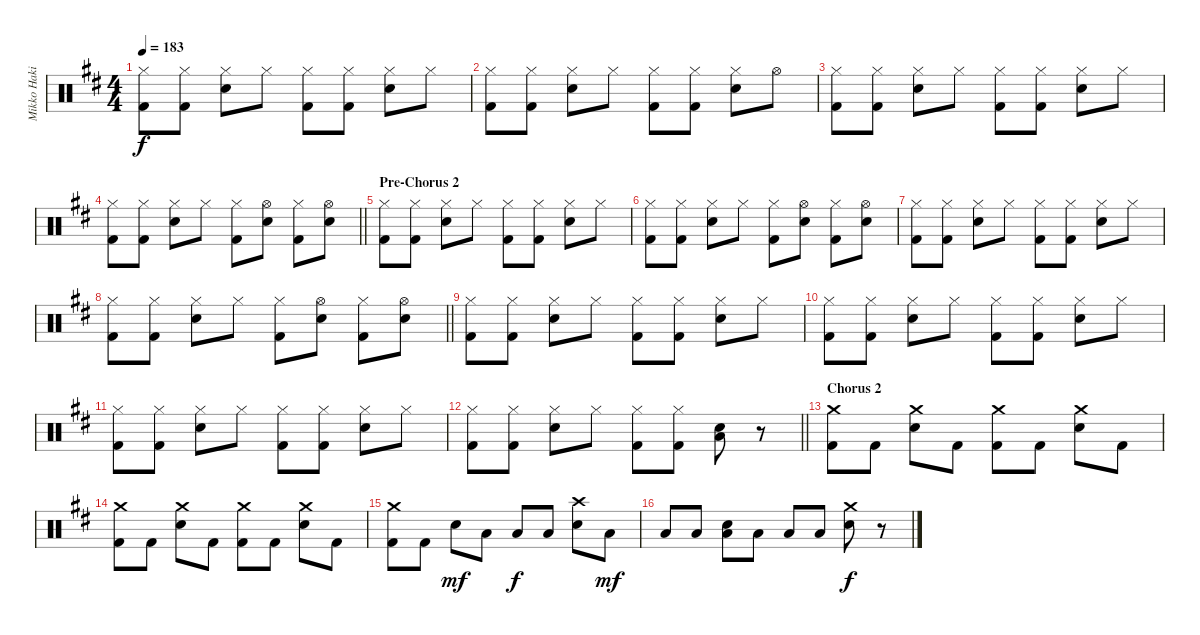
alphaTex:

\track ("Mikko Hakila - drums" "Mikko Haki") {instrument percussion}
\staff {score}
\articulation defaults
\ts (4 4)
\tempo 183
\clef neutral
\ks bminor
("Hi-Hat (closed)" "Kick (hit) 2").8{dy f} ("Hi-Hat (closed)" "Kick (hit) 2").8 ("Hi-Hat (closed)" "Electric Snare (hit)").8 "Hi-Hat (closed)".8 ("Hi-Hat (closed)" "Kick (hit) 2").8 ("Hi-Hat (closed)" "Kick (hit) 2").8 ("Hi-Hat (closed)" "Electric Snare (hit)").8 "Hi-Hat (closed)".8 |
("Hi-Hat (closed)" "Kick (hit) 2").8 ("Hi-Hat (closed)" "Kick (hit) 2").8 ("Hi-Hat (closed)" "Electric Snare (hit)").8 "Hi-Hat (closed)".8 ("Hi-Hat (closed)" "Kick (hit) 2").8 ("Hi-Hat (closed)" "Kick (hit) 2").8 ("Hi-Hat (closed)" "Electric Snare (hit)").8 "Hi-Hat (open)".8 |
("Hi-Hat (closed)" "Kick (hit) 2").8 ("Hi-Hat (closed)" "Kick (hit) 2").8 ("Hi-Hat (closed)" "Electric Snare (hit)").8 "Hi-Hat (closed)".8 ("Hi-Hat (closed)" "Kick (hit) 2").8 ("Hi-Hat (closed)" "Kick (hit) 2").8 ("Hi-Hat (closed)" "Electric Snare (hit)").8 "Hi-Hat (closed)".8 |
\barLineRight lightlight
("Hi-Hat (closed)" "Kick (hit) 2").8 ("Hi-Hat (closed)" "Kick (hit) 2").8 ("Hi-Hat (closed)" "Electric Snare (hit)").8 "Hi-Hat (closed)".8 ("Hi-Hat (closed)" "Kick (hit) 2").8 ("Hi-Hat (open)" "Electric Snare (hit)").8 ("Hi-Hat (closed)" "Kick (hit) 2").8 ("Hi-Hat (open)" "Electric Snare (hit)").8 |
\section ("" "Pre-Chorus 2")
("Hi-Hat (closed)" "Kick (hit) 2").8 ("Hi-Hat (closed)" "Kick (hit) 2").8 ("Hi-Hat (closed)" "Electric Snare (hit)").8 "Hi-Hat (closed)".8 ("Hi-Hat (closed)" "Kick (hit) 2").8 ("Hi-Hat (closed)" "Kick (hit) 2").8 ("Hi-Hat (closed)" "Electric Snare (hit)").8 "Hi-Hat (closed)".8 |
("Hi-Hat (closed)" "Kick (hit) 2").8 ("Hi-Hat (closed)" "Kick (hit) 2").8 ("Hi-Hat (closed)" "Electric Snare (hit)").8 "Hi-Hat (closed)".8 ("Hi-Hat (closed)" "Kick (hit) 2").8 ("Hi-Hat (open)" "Electric Snare (hit)").8 ("Hi-Hat (closed)" "Kick (hit) 2").8 ("Hi-Hat (open)" "Electric Snare (hit)").8 |
("Hi-Hat (closed)" "Kick (hit) 2").8 ("Hi-Hat (closed)" "Kick (hit) 2").8 ("Hi-Hat (closed)" "Electric Snare (hit)").8 "Hi-Hat (closed)".8 ("Hi-Hat (closed)" "Kick (hit) 2").8 ("Hi-Hat (closed)" "Kick (hit) 2").8 ("Hi-Hat (closed)" "Electric Snare (hit)").8 "Hi-Hat (closed)".8 |
\barLineRight lightlight
("Hi-Hat (closed)" "Kick (hit) 2").8 ("Hi-Hat (closed)" "Kick (hit) 2").8 ("Hi-Hat (closed)" "Electric Snare (hit)").8 "Hi-Hat (closed)".8 ("Hi-Hat (closed)" "Kick (hit) 2").8 ("Hi-Hat (open)" "Electric Snare (hit)").8 ("Hi-Hat (closed)" "Kick (hit) 2").8 ("Hi-Hat (open)" "Electric Snare (hit)").8 |
("Hi-Hat (closed)" "Kick (hit) 2").8 ("Hi-Hat (closed)" "Kick (hit) 2").8 ("Hi-Hat (closed)" "Electric Snare (hit)").8 "Hi-Hat (closed)".8 ("Hi-Hat (closed)" "Kick (hit) 2").8 ("Hi-Hat (closed)" "Kick (hit) 2").8 ("Hi-Hat (closed)" "Electric Snare (hit)").8 "Hi-Hat (closed)".8 |
("Hi-Hat (closed)" "Kick (hit) 2").8 ("Hi-Hat (closed)" "Kick (hit) 2").8 ("Hi-Hat (closed)" "Electric Snare (hit)").8 "Hi-Hat (closed)".8 ("Hi-Hat (closed)" "Kick (hit) 2").8 ("Hi-Hat (closed)" "Kick (hit) 2").8 ("Hi-Hat (closed)" "Electric Snare (hit)").8 "Hi-Hat (closed)".8 |
("Hi-Hat (closed)" "Kick (hit) 2").8 ("Hi-Hat (closed)" "Kick (hit) 2").8 ("Hi-Hat (closed)" "Electric Snare (hit)").8 "Hi-Hat (closed)".8 ("Hi-Hat (closed)" "Kick (hit) 2").8 ("Hi-Hat (closed)" "Kick (hit) 2").8 ("Hi-Hat (closed)" "Electric Snare (hit)").8 "Hi-Hat (closed)".8 |
\barLineRight lightlight
("Hi-Hat (closed)" "Kick (hit) 2").8 ("Hi-Hat (closed)" "Kick (hit) 2").8 ("Hi-Hat (closed)" "Electric Snare (hit)").8 "Hi-Hat (closed)".8 ("Hi-Hat (closed)" "Kick (hit) 2").8 ("Hi-Hat (closed)" "Kick (hit) 2").8 ("Electric Snare (hit)" "Low Tom (hit)").8 r.8 |
\section ("" "Chorus 2")
("Crash medium (hit)" "Kick (hit) 2").8 "Kick (hit) 2".8 ("Crash medium (hit)" "Electric Snare (hit)").8 "Kick (hit) 2".8 ("Crash medium (hit)" "Kick (hit) 2").8 "Kick (hit) 2".8 ("Crash medium (hit)" "Electric Snare (hit)").8 "Kick (hit) 2".8 |
("Crash medium (hit)" "Kick (hit) 2").8 "Kick (hit) 2".8 ("Crash medium (hit)" "Electric Snare (hit)").8 "Kick (hit) 2".8 ("Crash medium (hit)" "Kick (hit) 2").8 "Kick (hit) 2".8 ("Crash medium (hit)" "Electric Snare (hit)").8 "Kick (hit) 2".8 |
("Crash medium (hit)" "Kick (hit) 2").8 "Kick (hit) 2".8 "Electric Snare (hit)".8{dy mf} "Low Tom (hit)".8 "Low Tom (hit)".8{dy f} "Low Tom (hit)".8 ("Crash high (hit)" "Electric Snare (hit)").8 "Low Tom (hit)".8{dy mf} |
"Low Tom (hit)".8 "Low Tom (hit)".8 ("Electric Snare (hit)" "Low Tom (hit)").8 "Low Tom (hit)".8 "Low Tom (hit)".8 "Low Tom (hit)".8 ("Crash medium (hit)" "Electric Snare (hit)").8{dy f} r.8
